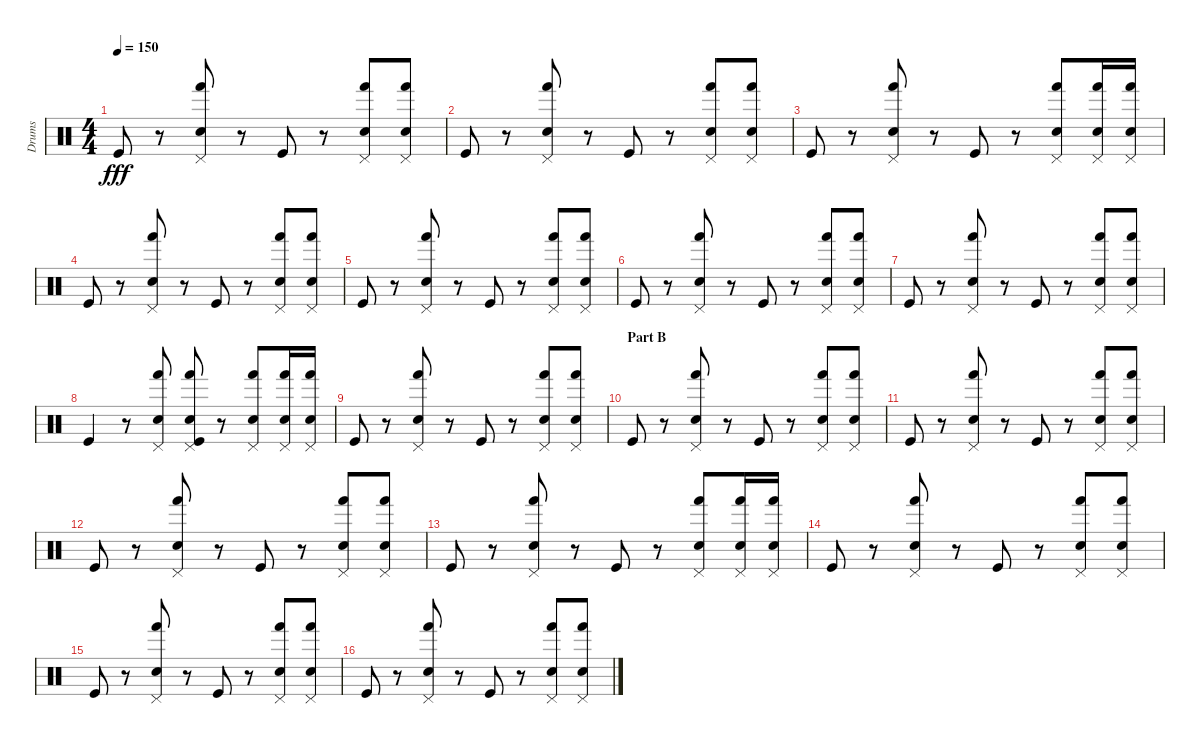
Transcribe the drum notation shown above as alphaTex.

\track ("Drums" "Drums") {instrument percussion}
\staff {score}
\articulation defaults
\ts (4 4)
\tempo 150
\clef neutral
\ks c "Kick (hit)".8{dy fff}
r.8 ("Pedal Hi-Hat (hit)" "Hand (hit)" "Electric Snare (hit)").8 r.8 "Kick (hit)".8 r.8 ("Pedal Hi-Hat (hit)" "Hand (hit)" "Electric Snare (hit)").8 ("Pedal Hi-Hat (hit)" "Hand (hit)" "Electric Snare (hit)").8 |
"Kick (hit)".8 r.8 ("Pedal Hi-Hat (hit)" "Hand (hit)" "Electric Snare (hit)").8 r.8 "Kick (hit)".8 r.8 ("Pedal Hi-Hat (hit)" "Hand (hit)" "Electric Snare (hit)").8 ("Pedal Hi-Hat (hit)" "Hand (hit)" "Electric Snare (hit)").8 |
"Kick (hit)".8 r.8 ("Pedal Hi-Hat (hit)" "Hand (hit)" "Electric Snare (hit)").8 r.8 "Kick (hit)".8 r.8 ("Pedal Hi-Hat (hit)" "Hand (hit)" "Electric Snare (hit)").8 ("Pedal Hi-Hat (hit)" "Hand (hit)" "Electric Snare (hit)").16 ("Pedal Hi-Hat (hit)" "Hand (hit)" "Electric Snare (hit)").16 |
"Kick (hit)".8 r.8 ("Pedal Hi-Hat (hit)" "Hand (hit)" "Electric Snare (hit)").8 r.8 "Kick (hit)".8 r.8 ("Pedal Hi-Hat (hit)" "Hand (hit)" "Electric Snare (hit)").8 ("Pedal Hi-Hat (hit)" "Hand (hit)" "Electric Snare (hit)").8 |
"Kick (hit)".8 r.8 ("Pedal Hi-Hat (hit)" "Hand (hit)" "Electric Snare (hit)").8 r.8 "Kick (hit)".8 r.8 ("Pedal Hi-Hat (hit)" "Hand (hit)" "Electric Snare (hit)").8 ("Pedal Hi-Hat (hit)" "Hand (hit)" "Electric Snare (hit)").8 |
"Kick (hit)".8 r.8 ("Pedal Hi-Hat (hit)" "Hand (hit)" "Electric Snare (hit)").8 r.8 "Kick (hit)".8 r.8 ("Pedal Hi-Hat (hit)" "Hand (hit)" "Electric Snare (hit)").8 ("Pedal Hi-Hat (hit)" "Hand (hit)" "Electric Snare (hit)").8 |
"Kick (hit)".8 r.8 ("Pedal Hi-Hat (hit)" "Hand (hit)" "Electric Snare (hit)").8 r.8 "Kick (hit)".8 r.8 ("Pedal Hi-Hat (hit)" "Hand (hit)" "Electric Snare (hit)").8 ("Pedal Hi-Hat (hit)" "Hand (hit)" "Electric Snare (hit)").8 |
"Kick (hit)".4 r.8 ("Pedal Hi-Hat (hit)" "Hand (hit)" "Electric Snare (hit)").8 ("Pedal Hi-Hat (hit)" "Hand (hit)" "Electric Snare (hit)" "Kick (hit)").8 r.8 ("Pedal Hi-Hat (hit)" "Hand (hit)" "Electric Snare (hit)").8 ("Pedal Hi-Hat (hit)" "Hand (hit)" "Electric Snare (hit)").16 ("Pedal Hi-Hat (hit)" "Hand (hit)" "Electric Snare (hit)").16 |
"Kick (hit)".8 r.8 ("Pedal Hi-Hat (hit)" "Hand (hit)" "Electric Snare (hit)").8 r.8 "Kick (hit)".8 r.8 ("Pedal Hi-Hat (hit)" "Hand (hit)" "Electric Snare (hit)").8 ("Pedal Hi-Hat (hit)" "Hand (hit)" "Electric Snare (hit)").8 |
\section ("" "Part B")
"Kick (hit)".8 r.8 ("Pedal Hi-Hat (hit)" "Hand (hit)" "Electric Snare (hit)").8 r.8 "Kick (hit)".8 r.8 ("Pedal Hi-Hat (hit)" "Hand (hit)" "Electric Snare (hit)").8 ("Pedal Hi-Hat (hit)" "Hand (hit)" "Electric Snare (hit)").8 |
"Kick (hit)".8 r.8 ("Pedal Hi-Hat (hit)" "Hand (hit)" "Electric Snare (hit)").8 r.8 "Kick (hit)".8 r.8 ("Pedal Hi-Hat (hit)" "Hand (hit)" "Electric Snare (hit)").8 ("Pedal Hi-Hat (hit)" "Hand (hit)" "Electric Snare (hit)").8 |
"Kick (hit)".8 r.8 ("Pedal Hi-Hat (hit)" "Hand (hit)" "Electric Snare (hit)").8 r.8 "Kick (hit)".8 r.8 ("Pedal Hi-Hat (hit)" "Hand (hit)" "Electric Snare (hit)").8 ("Pedal Hi-Hat (hit)" "Hand (hit)" "Electric Snare (hit)").8 |
"Kick (hit)".8 r.8 ("Pedal Hi-Hat (hit)" "Hand (hit)" "Electric Snare (hit)").8 r.8 "Kick (hit)".8 r.8 ("Pedal Hi-Hat (hit)" "Hand (hit)" "Electric Snare (hit)").8 ("Pedal Hi-Hat (hit)" "Hand (hit)" "Electric Snare (hit)").16 ("Pedal Hi-Hat (hit)" "Hand (hit)" "Electric Snare (hit)").16 |
"Kick (hit)".8 r.8 ("Pedal Hi-Hat (hit)" "Hand (hit)" "Electric Snare (hit)").8 r.8 "Kick (hit)".8 r.8 ("Pedal Hi-Hat (hit)" "Hand (hit)" "Electric Snare (hit)").8 ("Pedal Hi-Hat (hit)" "Hand (hit)" "Electric Snare (hit)").8 |
"Kick (hit)".8 r.8 ("Pedal Hi-Hat (hit)" "Hand (hit)" "Electric Snare (hit)").8 r.8 "Kick (hit)".8 r.8 ("Pedal Hi-Hat (hit)" "Hand (hit)" "Electric Snare (hit)").8 ("Pedal Hi-Hat (hit)" "Hand (hit)" "Electric Snare (hit)").8 |
"Kick (hit)".8 r.8 ("Pedal Hi-Hat (hit)" "Hand (hit)" "Electric Snare (hit)").8 r.8 "Kick (hit)".8 r.8 ("Pedal Hi-Hat (hit)" "Hand (hit)" "Electric Snare (hit)").8 ("Pedal Hi-Hat (hit)" "Hand (hit)" "Electric Snare (hit)").8
